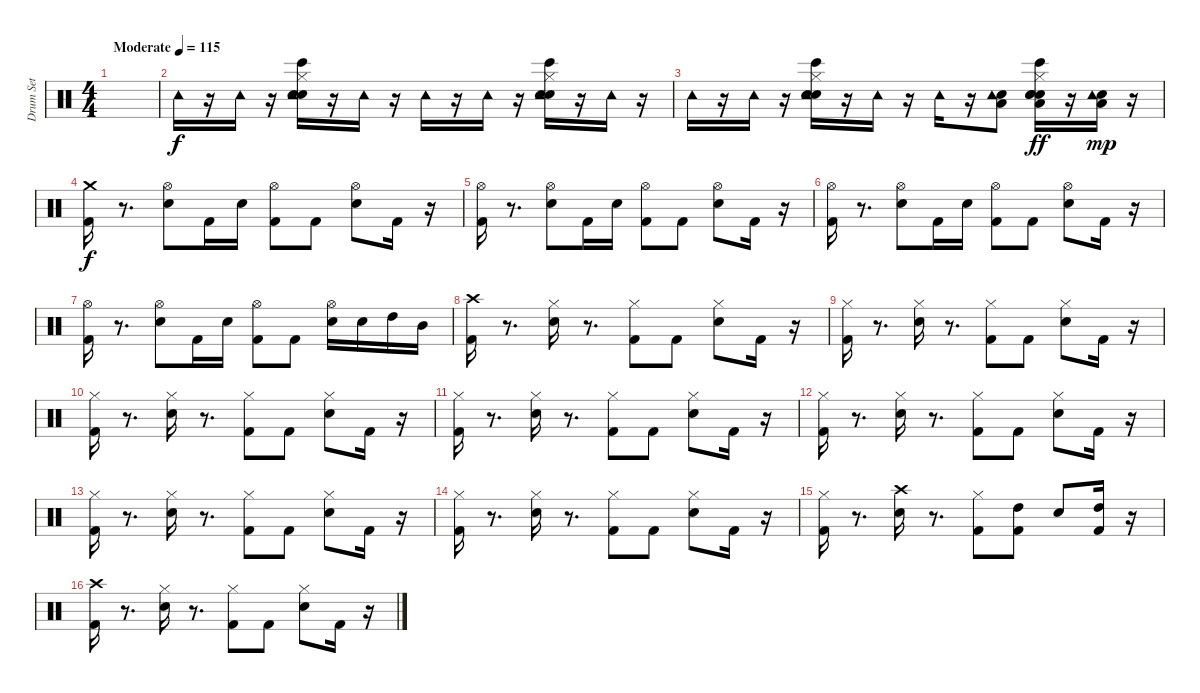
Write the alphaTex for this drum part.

\track ("Drum Set" "Drum Set") {instrument percussion}
\staff {score}
\articulation defaults
\ts (4 4)
\tempo (115 "Moderate")
\clef neutral
\ks c
|
"Tambourine (hit)".16 r.16 "Tambourine (hit)".16 r.16 ("Hi-Hat (closed)" "Snare (hit)" "Snare (hit)" "Bongo High (hit)" "Tambourine (hit)").16 r.16 "Tambourine (hit)".16 r.16 "Tambourine (hit)".16 r.16 "Tambourine (hit)".16 r.16 ("Hi-Hat (closed)" "Snare (hit)" "Snare (hit)" "Bongo High (hit)" "Tambourine (hit)").16 r.16 "Tambourine (hit)".16 r.16 |
"Tambourine (hit)".16 r.16 "Tambourine (hit)".16 r.16 ("Hi-Hat (closed)" "Snare (hit)" "Snare (hit)" "Bongo High (hit)" "Tambourine (hit)").16 r.16 "Tambourine (hit)".16 r.16 "Tambourine (hit)".16 r.16 ("Low Tom (hit)" "Electric Snare (hit)" "Tambourine (hit)").8 ("Hi-Hat (closed)" "Snare (hit)" "Snare (hit)" "Low Tom (hit)" "Electric Snare (hit)" "Bongo High (hit)").16{dy ff} r.16 ("Low Tom (hit)" "Electric Snare (hit)" "Tambourine (hit)").16{dy mp} r.16 |
("Crash medium (hit)" "Kick (hit) 2").16{dy f} r.8{d} ("Hi-Hat (open)" "Electric Snare (hit)").8 "Kick (hit) 2".16 "Electric Snare (hit)".16 ("Hi-Hat (open)" "Kick (hit) 2").8 "Kick (hit) 2".8 ("Hi-Hat (open)" "Electric Snare (hit)").8 "Kick (hit) 2".16 r.16 |
("Hi-Hat (open)" "Kick (hit) 2").16 r.8{d} ("Hi-Hat (open)" "Electric Snare (hit)").8 "Kick (hit) 2".16 "Electric Snare (hit)".16 ("Hi-Hat (open)" "Kick (hit) 2").8 "Kick (hit) 2".8 ("Hi-Hat (open)" "Electric Snare (hit)").8 "Kick (hit) 2".16 r.16 |
("Hi-Hat (open)" "Kick (hit) 2").16 r.8{d} ("Hi-Hat (open)" "Electric Snare (hit)").8 "Kick (hit) 2".16 "Electric Snare (hit)".16 ("Hi-Hat (open)" "Kick (hit) 2").8 "Kick (hit) 2".8 ("Hi-Hat (open)" "Electric Snare (hit)").8 "Kick (hit) 2".16 r.16 |
("Hi-Hat (open)" "Kick (hit) 2").16 r.8{d} ("Hi-Hat (open)" "Electric Snare (hit)").8 "Kick (hit) 2".16 "Electric Snare (hit)".16 ("Hi-Hat (open)" "Kick (hit) 2").8 "Kick (hit) 2".8 ("Hi-Hat (open)" "Electric Snare (hit)").16 "Electric Snare (hit)".16 "High Tom (hit)".16 "Mid Tom (hit)".16 |
("Crash high (hit)" "Kick (hit) 2").16 r.8{d} ("Hi-Hat (closed)" "Electric Snare (hit)").16 r.8{d} ("Hi-Hat (closed)" "Kick (hit) 2").8 "Kick (hit) 2".8 ("Hi-Hat (closed)" "Electric Snare (hit)").8 "Kick (hit) 2".16 r.16 |
("Hi-Hat (closed)" "Kick (hit) 2").16 r.8{d} ("Hi-Hat (closed)" "Electric Snare (hit)").16 r.8{d} ("Hi-Hat (closed)" "Kick (hit) 2").8 "Kick (hit) 2".8 ("Hi-Hat (closed)" "Electric Snare (hit)").8 "Kick (hit) 2".16 r.16 |
("Hi-Hat (closed)" "Kick (hit) 2").16 r.8{d} ("Hi-Hat (closed)" "Electric Snare (hit)").16 r.8{d} ("Hi-Hat (closed)" "Kick (hit) 2").8 "Kick (hit) 2".8 ("Hi-Hat (closed)" "Electric Snare (hit)").8 "Kick (hit) 2".16 r.16 |
("Hi-Hat (closed)" "Kick (hit) 2").16 r.8{d} ("Hi-Hat (closed)" "Electric Snare (hit)").16 r.8{d} ("Hi-Hat (closed)" "Kick (hit) 2").8 "Kick (hit) 2".8 ("Hi-Hat (closed)" "Electric Snare (hit)").8 "Kick (hit) 2".16 r.16 |
("Hi-Hat (closed)" "Kick (hit) 2").16 r.8{d} ("Hi-Hat (closed)" "Electric Snare (hit)").16 r.8{d} ("Hi-Hat (closed)" "Kick (hit) 2").8 "Kick (hit) 2".8 ("Hi-Hat (closed)" "Electric Snare (hit)").8 "Kick (hit) 2".16 r.16 |
("Hi-Hat (closed)" "Kick (hit) 2").16 r.8{d} ("Hi-Hat (closed)" "Electric Snare (hit)").16 r.8{d} ("Hi-Hat (closed)" "Kick (hit) 2").8 "Kick (hit) 2".8 ("Hi-Hat (closed)" "Electric Snare (hit)").8 "Kick (hit) 2".16 r.16 |
("Hi-Hat (closed)" "Kick (hit) 2").16 r.8{d} ("Hi-Hat (closed)" "Electric Snare (hit)").16 r.8{d} ("Hi-Hat (closed)" "Kick (hit) 2").8 "Kick (hit) 2".8 ("Hi-Hat (closed)" "Electric Snare (hit)").8 "Kick (hit) 2".16 r.16 |
("Hi-Hat (closed)" "Kick (hit) 2").16 r.8{d} ("Crash high (hit)" "Electric Snare (hit)").16 r.8{d} ("Hi-Hat (closed)" "Kick (hit) 2").8 ("High Tom (hit)" "Kick (hit) 2").8 "Electric Snare (hit)".8 ("High Tom (hit)" "Kick (hit) 2").16 r.16 |
("Crash high (hit)" "Kick (hit) 2").16 r.8{d} ("Hi-Hat (closed)" "Electric Snare (hit)").16 r.8{d} ("Hi-Hat (closed)" "Kick (hit) 2").8 "Kick (hit) 2".8 ("Hi-Hat (closed)" "Electric Snare (hit)").8 "Kick (hit) 2".16 r.16
